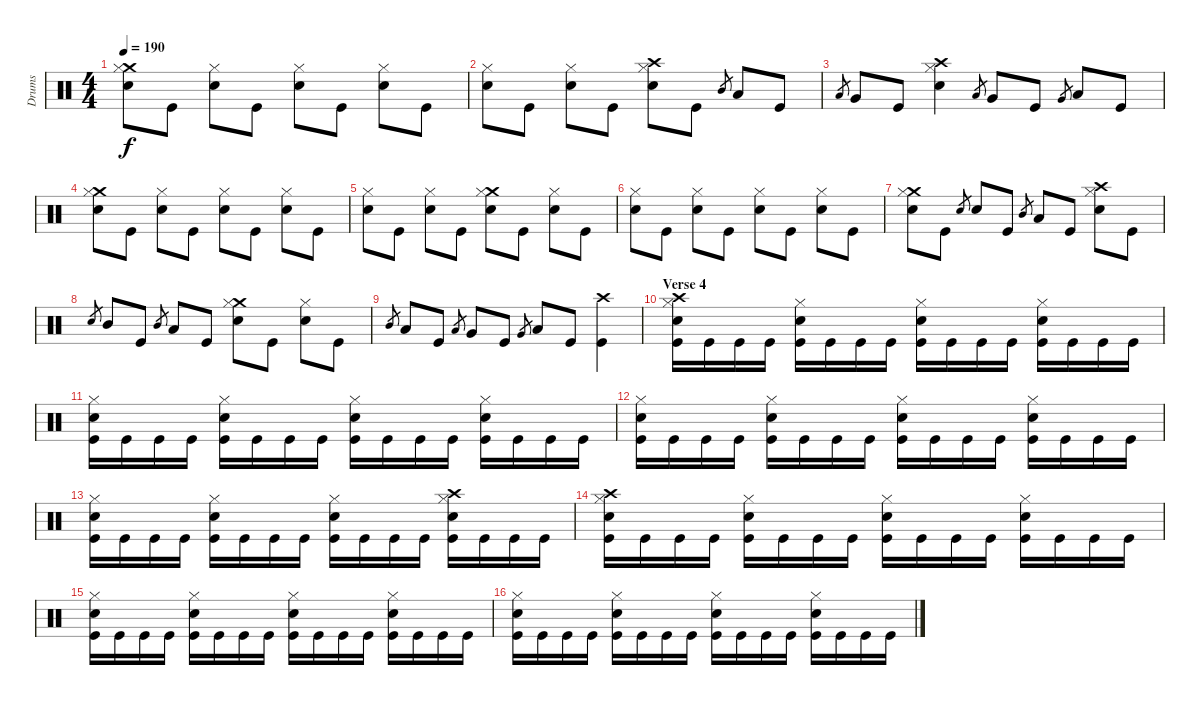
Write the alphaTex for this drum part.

\track ("Drums" "Drums") {instrument percussion}
\staff {score}
\articulation defaults
\ts (4 4)
\tempo 190
\clef neutral
\ks c
("Crash medium (hit)" "Hi-Hat (closed)" "Snare (hit) 2").8{dy f} "Kick (hit)".8 ("Hi-Hat (closed)" "Snare (hit) 2").8 "Kick (hit)".8 ("Hi-Hat (closed)" "Snare (hit) 2").8 "Kick (hit)".8 ("Hi-Hat (closed)" "Snare (hit) 2").8 "Kick (hit)".8 |
("Hi-Hat (closed)" "Snare (hit) 2").8 "Kick (hit)".8 ("Hi-Hat (closed)" "Snare (hit) 2").8 "Kick (hit)".8 ("Crash high (hit)" "Hi-Hat (closed)" "Snare (hit) 2").8 "Kick (hit)".8 "Mid Tom (hit)".8{gr} "Low Tom (hit)".8 "Kick (hit)".8 |
"Low Tom (hit)".8{gr} "Very Low Tom (hit)".8 "Kick (hit)".8 ("Crash high (hit)" "Hi-Hat (closed)" "Snare (hit) 2").4 "Low Tom (hit)".8{gr} "Very Low Tom (hit)".8 "Kick (hit)".8 "Very Low Tom (hit)".8{gr} "Low Floor Tom (hit)".8 "Kick (hit)".8 |
("Crash medium (hit)" "Hi-Hat (closed)" "Snare (hit) 2").8 "Kick (hit)".8 ("Hi-Hat (closed)" "Snare (hit) 2").8 "Kick (hit)".8 ("Hi-Hat (closed)" "Snare (hit) 2").8 "Kick (hit)".8 ("Hi-Hat (closed)" "Snare (hit) 2").8 "Kick (hit)".8 |
("Hi-Hat (closed)" "Snare (hit) 2").8 "Kick (hit)".8 ("Hi-Hat (closed)" "Snare (hit) 2").8 "Kick (hit)".8 ("Crash medium (hit)" "Hi-Hat (closed)" "Snare (hit) 2").8 "Kick (hit)".8 ("Hi-Hat (closed)" "Snare (hit) 2").8 "Kick (hit)".8 |
("Hi-Hat (closed)" "Snare (hit) 2").8 "Kick (hit)".8 ("Hi-Hat (closed)" "Snare (hit) 2").8 "Kick (hit)".8 ("Hi-Hat (closed)" "Snare (hit) 2").8 "Kick (hit)".8 ("Hi-Hat (closed)" "Snare (hit) 2").8 "Kick (hit)".8 |
("Crash medium (hit)" "Hi-Hat (closed)" "Snare (hit) 2").8 "Kick (hit)".8 "Snare (hit) 2".8{gr} "Snare (hit) 2".8 "Kick (hit)".8 "Mid Tom (hit)".8{gr} "Low Tom (hit)".8 "Kick (hit)".8 ("Crash high (hit)" "Hi-Hat (closed)" "Snare (hit) 2").8 "Kick (hit)".8 |
"Snare (hit) 2".8{gr} "Mid Tom (hit)".8 "Kick (hit)".8 "Mid Tom (hit)".8{gr} "Low Tom (hit)".8 "Kick (hit)".8 ("Crash medium (hit)" "Hi-Hat (closed)" "Snare (hit) 2").8 "Kick (hit)".8 ("Hi-Hat (closed)" "Snare (hit) 2").8 "Kick (hit)".8 |
"Mid Tom (hit)".8{gr} "Low Tom (hit)".8 "Kick (hit)".8 "Low Tom (hit)".8{gr} "Very Low Tom (hit)".8 "Kick (hit)".8 "Very Low Tom (hit)".8{gr} "Low Floor Tom (hit)".8 "Kick (hit)".8 ("Crash high (hit)" "Kick (hit)").4 |
\section ("" "Verse 4")
("Crash high (hit)" "Hi-Hat (closed)" "Snare (hit) 2" "Kick (hit)").16 "Kick (hit)".16 "Kick (hit)".16 "Kick (hit)".16 ("Hi-Hat (closed)" "Snare (hit) 2" "Kick (hit)").16 "Kick (hit)".16 "Kick (hit)".16 "Kick (hit)".16 ("Hi-Hat (closed)" "Snare (hit) 2" "Kick (hit)").16 "Kick (hit)".16 "Kick (hit)".16 "Kick (hit)".16 ("Hi-Hat (closed)" "Snare (hit) 2" "Kick (hit)").16 "Kick (hit)".16 "Kick (hit)".16 "Kick (hit)".16 |
("Hi-Hat (closed)" "Snare (hit) 2" "Kick (hit)").16 "Kick (hit)".16 "Kick (hit)".16 "Kick (hit)".16 ("Hi-Hat (closed)" "Snare (hit) 2" "Kick (hit)").16 "Kick (hit)".16 "Kick (hit)".16 "Kick (hit)".16 ("Hi-Hat (closed)" "Snare (hit) 2" "Kick (hit)").16 "Kick (hit)".16 "Kick (hit)".16 "Kick (hit)".16 ("Hi-Hat (closed)" "Snare (hit) 2" "Kick (hit)").16 "Kick (hit)".16 "Kick (hit)".16 "Kick (hit)".16 |
("Hi-Hat (closed)" "Snare (hit) 2" "Kick (hit)").16 "Kick (hit)".16 "Kick (hit)".16 "Kick (hit)".16 ("Hi-Hat (closed)" "Snare (hit) 2" "Kick (hit)").16 "Kick (hit)".16 "Kick (hit)".16 "Kick (hit)".16 ("Hi-Hat (closed)" "Snare (hit) 2" "Kick (hit)").16 "Kick (hit)".16 "Kick (hit)".16 "Kick (hit)".16 ("Hi-Hat (closed)" "Snare (hit) 2" "Kick (hit)").16 "Kick (hit)".16 "Kick (hit)".16 "Kick (hit)".16 |
("Hi-Hat (closed)" "Snare (hit) 2" "Kick (hit)").16 "Kick (hit)".16 "Kick (hit)".16 "Kick (hit)".16 ("Hi-Hat (closed)" "Snare (hit) 2" "Kick (hit)").16 "Kick (hit)".16 "Kick (hit)".16 "Kick (hit)".16 ("Hi-Hat (closed)" "Snare (hit) 2" "Kick (hit)").16 "Kick (hit)".16 "Kick (hit)".16 "Kick (hit)".16 ("Crash high (hit)" "Hi-Hat (closed)" "Snare (hit) 2" "Kick (hit)").16 "Kick (hit)".16 "Kick (hit)".16 "Kick (hit)".16 |
("Crash high (hit)" "Hi-Hat (closed)" "Snare (hit) 2" "Kick (hit)").16 "Kick (hit)".16 "Kick (hit)".16 "Kick (hit)".16 ("Hi-Hat (closed)" "Snare (hit) 2" "Kick (hit)").16 "Kick (hit)".16 "Kick (hit)".16 "Kick (hit)".16 ("Hi-Hat (closed)" "Snare (hit) 2" "Kick (hit)").16 "Kick (hit)".16 "Kick (hit)".16 "Kick (hit)".16 ("Hi-Hat (closed)" "Snare (hit) 2" "Kick (hit)").16 "Kick (hit)".16 "Kick (hit)".16 "Kick (hit)".16 |
("Hi-Hat (closed)" "Snare (hit) 2" "Kick (hit)").16 "Kick (hit)".16 "Kick (hit)".16 "Kick (hit)".16 ("Hi-Hat (closed)" "Snare (hit) 2" "Kick (hit)").16 "Kick (hit)".16 "Kick (hit)".16 "Kick (hit)".16 ("Hi-Hat (closed)" "Snare (hit) 2" "Kick (hit)").16 "Kick (hit)".16 "Kick (hit)".16 "Kick (hit)".16 ("Hi-Hat (closed)" "Snare (hit) 2" "Kick (hit)").16 "Kick (hit)".16 "Kick (hit)".16 "Kick (hit)".16 |
("Hi-Hat (closed)" "Snare (hit) 2" "Kick (hit)").16 "Kick (hit)".16 "Kick (hit)".16 "Kick (hit)".16 ("Hi-Hat (closed)" "Snare (hit) 2" "Kick (hit)").16 "Kick (hit)".16 "Kick (hit)".16 "Kick (hit)".16 ("Hi-Hat (closed)" "Snare (hit) 2" "Kick (hit)").16 "Kick (hit)".16 "Kick (hit)".16 "Kick (hit)".16 ("Hi-Hat (closed)" "Snare (hit) 2" "Kick (hit)").16 "Kick (hit)".16 "Kick (hit)".16 "Kick (hit)".16
